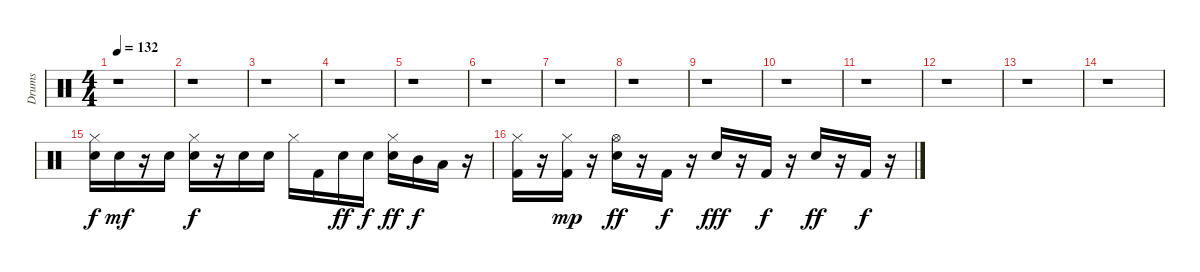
\track ("Drums" "Drums") {instrument percussion}
\staff {score}
\articulation defaults
\ts (4 4)
\tempo 132
\clef neutral
\ks c
r.1{dy f} |
r.1 |
r.1 |
r.1 |
r.1 |
r.1 |
r.1 |
r.1 |
r.1 |
r.1 |
r.1 |
r.1 |
r.1 |
r.1 |
("Snare (hit) 2" "Hi-Hat (closed)").16 "Snare (hit) 2".16{dy mf} r.16 "Snare (hit) 2".16 ("Snare (hit) 2" "Hi-Hat (closed)").16{dy f} r.16 "Snare (hit) 2".16 "Snare (hit) 2".16 "Hi-Hat (closed)".16 "Kick (hit) 2".16 "Snare (hit) 2".16{dy ff} "Snare (hit) 2".16{dy f} ("Snare (hit) 2" "Hi-Hat (closed)").16{dy ff} "Mid Tom (hit)".16{dy f} "Low Floor Tom (hit)".16 r.16 |
("Kick (hit) 2" "Hi-Hat (closed)").16 r.16 ("Kick (hit) 2" "Hi-Hat (closed)").16{dy mp} r.16 ("Snare (hit) 2" "Hi-Hat (open)").16{dy ff} r.16 "Kick (hit) 2".16{dy f} r.16 "Snare (hit) 2".16{dy fff} r.16 "Kick (hit) 2".16{dy f} r.16 "Snare (hit) 2".16{dy ff} r.16 "Kick (hit) 2".16{dy f} r.16
